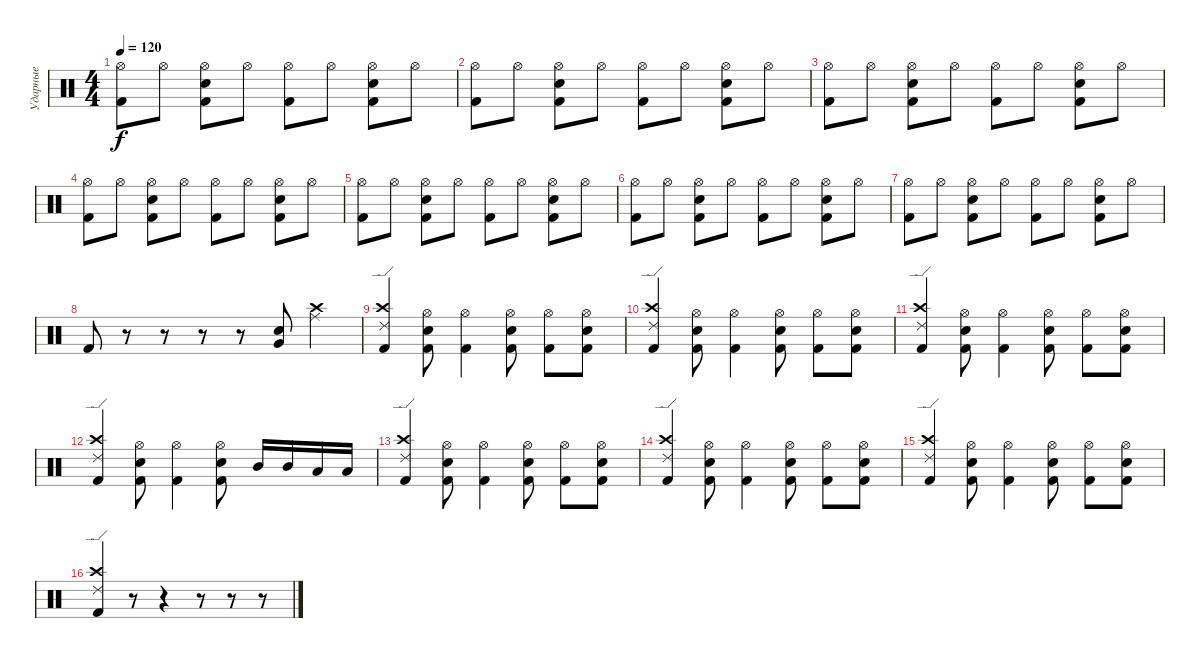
\track ("Ударные" "Ударные") {instrument percussion}
\staff {score}
\articulation defaults
\ts (4 4)
\tempo 120
\clef neutral
\ks c
("Hi-Hat (open)" "Kick (hit) 2").8{dy f} "Hi-Hat (open)".8 ("Hi-Hat (open)" "Kick (hit) 2" "Snare (hit) 2").8 "Hi-Hat (open)".8 ("Hi-Hat (open)" "Kick (hit) 2").8 "Hi-Hat (open)".8 ("Hi-Hat (open)" "Kick (hit) 2" "Snare (hit) 2").8 "Hi-Hat (open)".8 |
("Hi-Hat (open)" "Kick (hit) 2").8 "Hi-Hat (open)".8 ("Hi-Hat (open)" "Kick (hit) 2" "Snare (hit) 2").8 "Hi-Hat (open)".8 ("Hi-Hat (open)" "Kick (hit) 2").8 "Hi-Hat (open)".8 ("Hi-Hat (open)" "Kick (hit) 2" "Snare (hit) 2").8 "Hi-Hat (open)".8 |
("Hi-Hat (open)" "Kick (hit) 2").8 "Hi-Hat (open)".8 ("Hi-Hat (open)" "Kick (hit) 2" "Snare (hit) 2").8 "Hi-Hat (open)".8 ("Hi-Hat (open)" "Kick (hit) 2").8 "Hi-Hat (open)".8 ("Hi-Hat (open)" "Kick (hit) 2" "Snare (hit) 2").8 "Hi-Hat (open)".8 |
("Hi-Hat (open)" "Kick (hit) 2").8 "Hi-Hat (open)".8 ("Hi-Hat (open)" "Kick (hit) 2" "Snare (hit) 2").8 "Hi-Hat (open)".8 ("Hi-Hat (open)" "Kick (hit) 2").8 "Hi-Hat (open)".8 ("Hi-Hat (open)" "Kick (hit) 2" "Snare (hit) 2").8 "Hi-Hat (open)".8 |
("Hi-Hat (open)" "Kick (hit) 2").8 "Hi-Hat (open)".8 ("Hi-Hat (open)" "Kick (hit) 2" "Snare (hit) 2").8 "Hi-Hat (open)".8 ("Hi-Hat (open)" "Kick (hit) 2").8 "Hi-Hat (open)".8 ("Hi-Hat (open)" "Kick (hit) 2" "Snare (hit) 2").8 "Hi-Hat (open)".8 |
("Hi-Hat (open)" "Kick (hit) 2").8 "Hi-Hat (open)".8 ("Hi-Hat (open)" "Kick (hit) 2" "Snare (hit) 2").8 "Hi-Hat (open)".8 ("Hi-Hat (open)" "Kick (hit) 2").8 "Hi-Hat (open)".8 ("Hi-Hat (open)" "Kick (hit) 2" "Snare (hit) 2").8 "Hi-Hat (open)".8 |
("Hi-Hat (open)" "Kick (hit) 2").8 "Hi-Hat (open)".8 ("Hi-Hat (open)" "Kick (hit) 2" "Snare (hit) 2").8 "Hi-Hat (open)".8 ("Hi-Hat (open)" "Kick (hit) 2").8 "Hi-Hat (open)".8 ("Hi-Hat (open)" "Kick (hit) 2" "Snare (hit) 2").8 "Hi-Hat (open)".8 |
"Kick (hit) 2".8 r.8 r.8 r.8 r.8 ("Snare (hit) 2" "Very Low Tom (hit)").8 ("Ride (middle)" "Crash high (hit)").4 |
("Kick (hit) 2" "Ride (edge) 2" "Crash high (hit)").4 ("Kick (hit) 2" "Hi-Hat (open)" "Snare (hit) 2").8 ("Kick (hit) 2" "Hi-Hat (open)").4 ("Kick (hit) 2" "Hi-Hat (open)" "Snare (hit) 2").8 ("Kick (hit) 2" "Hi-Hat (open)").8 ("Kick (hit) 2" "Hi-Hat (open)" "Snare (hit) 2").8 |
("Kick (hit) 2" "Ride (edge) 2" "Crash high (hit)").4 ("Kick (hit) 2" "Hi-Hat (open)" "Snare (hit) 2").8 ("Kick (hit) 2" "Hi-Hat (open)").4 ("Kick (hit) 2" "Hi-Hat (open)" "Snare (hit) 2").8 ("Kick (hit) 2" "Hi-Hat (open)").8 ("Kick (hit) 2" "Hi-Hat (open)" "Snare (hit) 2").8 |
("Kick (hit) 2" "Ride (edge) 2" "Crash high (hit)").4 ("Kick (hit) 2" "Hi-Hat (open)" "Snare (hit) 2").8 ("Kick (hit) 2" "Hi-Hat (open)").4 ("Kick (hit) 2" "Hi-Hat (open)" "Snare (hit) 2").8 ("Kick (hit) 2" "Hi-Hat (open)").8 ("Kick (hit) 2" "Hi-Hat (open)" "Snare (hit) 2").8 |
("Kick (hit) 2" "Ride (edge) 2" "Crash high (hit)").4 ("Kick (hit) 2" "Hi-Hat (open)" "Snare (hit) 2").8 ("Kick (hit) 2" "Hi-Hat (open)").4 ("Kick (hit) 2" "Hi-Hat (open)" "Snare (hit) 2").8 "Mid Tom (hit)".16 "Mid Tom (hit)".16 "Low Tom (hit)".16 "Low Tom (hit)".16 |
("Kick (hit) 2" "Ride (edge) 2" "Crash high (hit)").4 ("Kick (hit) 2" "Hi-Hat (open)" "Snare (hit) 2").8 ("Kick (hit) 2" "Hi-Hat (open)").4 ("Kick (hit) 2" "Hi-Hat (open)" "Snare (hit) 2").8 ("Kick (hit) 2" "Hi-Hat (open)").8 ("Kick (hit) 2" "Hi-Hat (open)" "Snare (hit) 2").8 |
("Kick (hit) 2" "Ride (edge) 2" "Crash high (hit)").4 ("Kick (hit) 2" "Hi-Hat (open)" "Snare (hit) 2").8 ("Kick (hit) 2" "Hi-Hat (open)").4 ("Kick (hit) 2" "Hi-Hat (open)" "Snare (hit) 2").8 ("Kick (hit) 2" "Hi-Hat (open)").8 ("Kick (hit) 2" "Hi-Hat (open)" "Snare (hit) 2").8 |
("Kick (hit) 2" "Ride (edge) 2" "Crash high (hit)").4 ("Kick (hit) 2" "Hi-Hat (open)" "Snare (hit) 2").8 ("Kick (hit) 2" "Hi-Hat (open)").4 ("Kick (hit) 2" "Hi-Hat (open)" "Snare (hit) 2").8 ("Kick (hit) 2" "Hi-Hat (open)").8 ("Kick (hit) 2" "Hi-Hat (open)" "Snare (hit) 2").8 |
("Kick (hit) 2" "Ride (edge) 2" "Crash high (hit)").4 r.8 r.4 r.8 r.8 r.8
